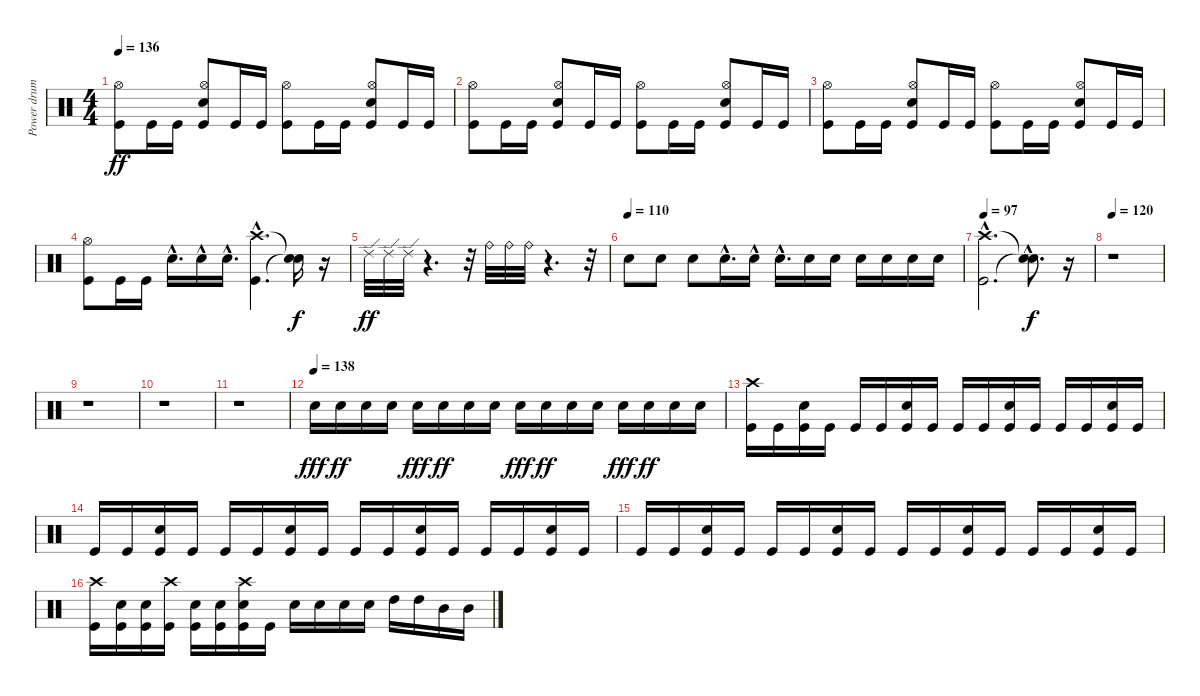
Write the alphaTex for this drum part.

\track ("Power drums" "Power drum") {instrument percussion}
\staff {score}
\articulation defaults
\ts (4 4)
\tempo 136
\clef neutral
\ks c
("Kick (hit)" "Hi-Hat (open)").8{dy ff} "Kick (hit)".16 "Kick (hit)".16 ("Kick (hit)" "Snare (hit) 2" "Hi-Hat (open)").8 "Kick (hit)".16 "Kick (hit)".16 ("Kick (hit)" "Hi-Hat (open)").8 "Kick (hit)".16 "Kick (hit)".16 ("Kick (hit)" "Snare (hit) 2" "Hi-Hat (open)").8 "Kick (hit)".16 "Kick (hit)".16 |
("Kick (hit)" "Hi-Hat (open)").8 "Kick (hit)".16 "Kick (hit)".16 ("Kick (hit)" "Snare (hit) 2" "Hi-Hat (open)").8 "Kick (hit)".16 "Kick (hit)".16 ("Kick (hit)" "Hi-Hat (open)").8 "Kick (hit)".16 "Kick (hit)".16 ("Kick (hit)" "Snare (hit) 2" "Hi-Hat (open)").8 "Kick (hit)".16 "Kick (hit)".16 |
("Kick (hit)" "Hi-Hat (open)").8 "Kick (hit)".16 "Kick (hit)".16 ("Kick (hit)" "Snare (hit) 2" "Hi-Hat (open)").8 "Kick (hit)".16 "Kick (hit)".16 ("Kick (hit)" "Hi-Hat (open)").8 "Kick (hit)".16 "Kick (hit)".16 ("Kick (hit)" "Snare (hit) 2" "Hi-Hat (open)").8 "Kick (hit)".16 "Kick (hit)".16 |
("Kick (hit)" "Hi-Hat (open)").8 "Kick (hit)".16 "Kick (hit)".16 "Snare (hit) 2"{hac}.16{d} "Snare (hit) 2"{hac}.16 "Snare (hit) 2"{hac}.16{d} ("Kick (hit)"{hac} "Crash high (hit)"{hac}).4{d} ("Snare (hit)"{t} "Snare (hit)"{t}).16{dy f} r.16 |
"Ride (edge) 2".32{dy ff} "Ride (edge) 2".32 "Ride (edge) 2".32 r.4{d} r.32 "Ride (bell)".32 "Ride (bell)".32 "Ride (bell)".32 r.4{d} r.32 |
\tempo (110)
"Snare (hit) 2".8 "Snare (hit) 2".8 "Snare (hit) 2".8 "Snare (hit) 2"{hac}.16{d} "Snare (hit) 2"{hac}.16 "Snare (hit) 2"{hac}.16{d} "Snare (hit) 2".16 "Snare (hit) 2".16 "Snare (hit) 2".16 "Snare (hit) 2".16 "Snare (hit) 2".16 "Snare (hit) 2".16 |
\tempo 97
("Kick (hit)"{hac} "Crash high (hit)"{hac}).2{d} ("Snare (hit)"{hac t} "Snare (hit)"{hac t}).8{d dy f} r.16 |
\tempo 120
r.1 |
r.1 |
r.1 |
r.1 |
\tempo (138)
"Snare (hit) 2".16{dy fff} "Snare (hit) 2".16{dy ff} "Snare (hit) 2".16 "Snare (hit) 2".16 "Snare (hit) 2".16{dy fff} "Snare (hit) 2".16{dy ff} "Snare (hit) 2".16 "Snare (hit) 2".16 "Snare (hit) 2".16{dy fff} "Snare (hit) 2".16{dy ff} "Snare (hit) 2".16 "Snare (hit) 2".16 "Snare (hit) 2".16{dy fff} "Snare (hit) 2".16{dy ff} "Snare (hit) 2".16 "Snare (hit) 2".16 |
("Kick (hit)" "Crash high (hit)").16 "Kick (hit)".16 ("Kick (hit)" "Snare (hit) 2").16 "Kick (hit)".16 "Kick (hit)".16 "Kick (hit)".16 ("Kick (hit)" "Snare (hit) 2").16 "Kick (hit)".16 "Kick (hit)".16 "Kick (hit)".16 ("Kick (hit)" "Snare (hit) 2").16 "Kick (hit)".16 "Kick (hit)".16 "Kick (hit)".16 ("Kick (hit)" "Snare (hit) 2").16 "Kick (hit)".16 |
"Kick (hit)".16 "Kick (hit)".16 ("Kick (hit)" "Snare (hit) 2").16 "Kick (hit)".16 "Kick (hit)".16 "Kick (hit)".16 ("Kick (hit)" "Snare (hit) 2").16 "Kick (hit)".16 "Kick (hit)".16 "Kick (hit)".16 ("Kick (hit)" "Snare (hit) 2").16 "Kick (hit)".16 "Kick (hit)".16 "Kick (hit)".16 ("Kick (hit)" "Snare (hit) 2").16 "Kick (hit)".16 |
"Kick (hit)".16 "Kick (hit)".16 ("Kick (hit)" "Snare (hit) 2").16 "Kick (hit)".16 "Kick (hit)".16 "Kick (hit)".16 ("Kick (hit)" "Snare (hit) 2").16 "Kick (hit)".16 "Kick (hit)".16 "Kick (hit)".16 ("Kick (hit)" "Snare (hit) 2").16 "Kick (hit)".16 "Kick (hit)".16 "Kick (hit)".16 ("Kick (hit)" "Snare (hit) 2").16 "Kick (hit)".16 |
("Kick (hit)" "Crash high (hit)").16 ("Kick (hit)" "Snare (hit) 2").16 ("Kick (hit)" "Snare (hit) 2").16 ("Kick (hit)" "Crash high (hit)").16 ("Kick (hit)" "Snare (hit) 2").16 ("Kick (hit)" "Snare (hit) 2").16 ("Kick (hit)" "Snare (hit) 2" "Crash high (hit)").16 "Kick (hit)".16 "Snare (hit) 2".16 "Snare (hit) 2".16 "Snare (hit) 2".16 "Snare (hit) 2".16 "High Tom (hit)".16 "High Tom (hit)".16 "Mid Tom (hit)".16 "Mid Tom (hit)".16
